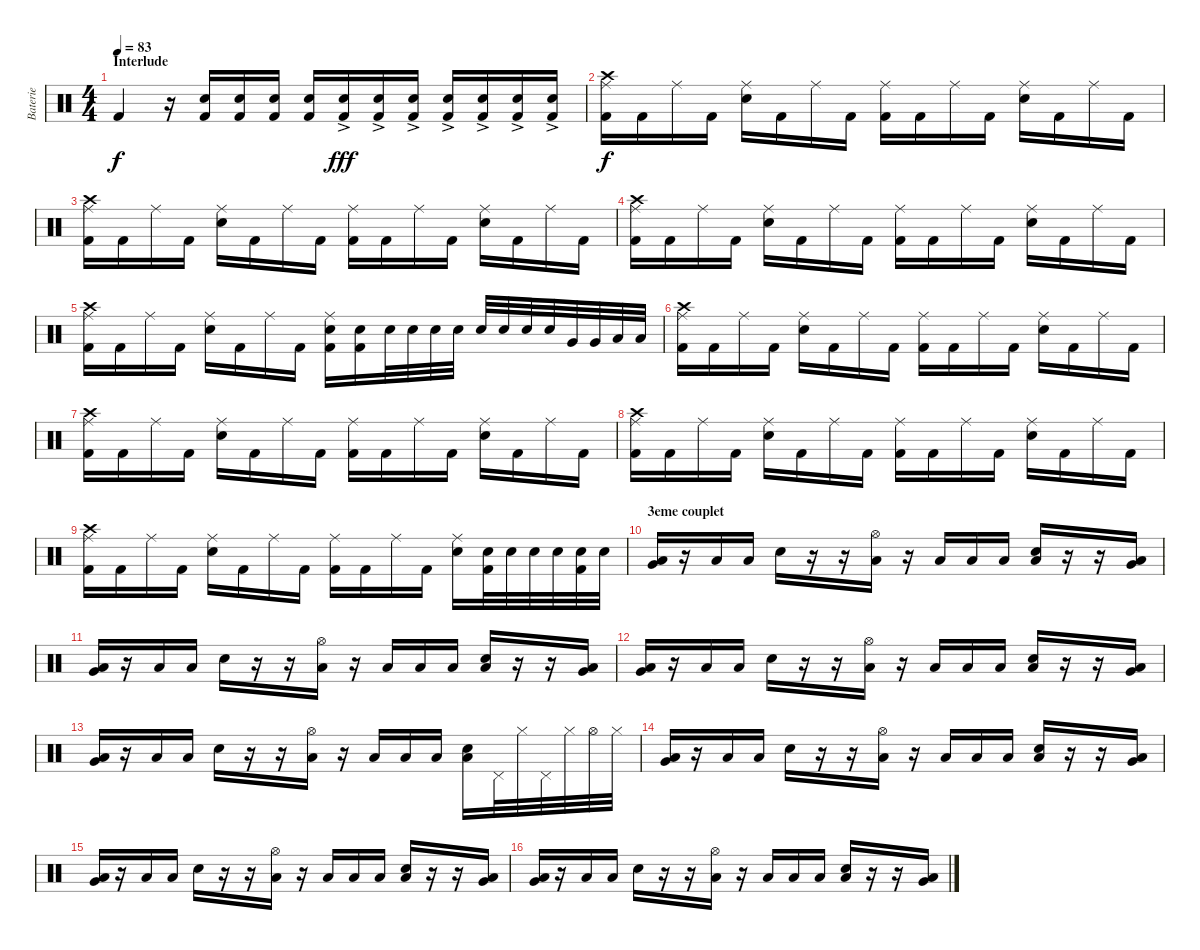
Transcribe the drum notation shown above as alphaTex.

\track ("Baterie" "Baterie") {instrument percussion}
\staff {score}
\articulation defaults
\ts (4 4)
\section ("" "Interlude")
\tempo 83
\clef neutral
\ks c "Kick (hit) 2".4{dy f}
r.16 ("Snare (hit) 2" "Kick (hit) 2").16 ("Snare (hit) 2" "Kick (hit) 2").16 ("Snare (hit) 2" "Kick (hit) 2").16 ("Snare (hit) 2" "Kick (hit) 2").16 ("Snare (hit) 2"{ac} "Kick (hit) 2").16{dy fff} ("Snare (hit) 2"{ac} "Kick (hit) 2").16 ("Snare (hit) 2"{ac} "Kick (hit) 2").16 ("Snare (hit) 2"{ac} "Kick (hit) 2").16 ("Snare (hit) 2"{ac} "Kick (hit) 2").16 ("Snare (hit) 2"{ac} "Kick (hit) 2").16 ("Snare (hit) 2"{ac} "Kick (hit) 2").16 |
("Crash high (hit)" "Kick (hit) 2" "Ride (middle)").16{dy f} "Kick (hit) 2".16 "Ride (middle)".16 "Kick (hit) 2".16 ("Snare (hit) 2" "Ride (middle)").16 "Kick (hit) 2".16 "Ride (middle)".16 "Kick (hit) 2".16 ("Kick (hit) 2" "Ride (middle)").16 "Kick (hit) 2".16 "Ride (middle)".16 "Kick (hit) 2".16 ("Snare (hit) 2" "Ride (middle)").16 "Kick (hit) 2".16 "Ride (middle)".16 "Kick (hit) 2".16 |
("Crash high (hit)" "Kick (hit) 2" "Ride (middle)").16 "Kick (hit) 2".16 "Ride (middle)".16 "Kick (hit) 2".16 ("Snare (hit) 2" "Ride (middle)").16 "Kick (hit) 2".16 "Ride (middle)".16 "Kick (hit) 2".16 ("Kick (hit) 2" "Ride (middle)").16 "Kick (hit) 2".16 "Ride (middle)".16 "Kick (hit) 2".16 ("Snare (hit) 2" "Ride (middle)").16 "Kick (hit) 2".16 "Ride (middle)".16 "Kick (hit) 2".16 |
("Crash high (hit)" "Kick (hit) 2" "Ride (middle)").16 "Kick (hit) 2".16 "Ride (middle)".16 "Kick (hit) 2".16 ("Snare (hit) 2" "Ride (middle)").16 "Kick (hit) 2".16 "Ride (middle)".16 "Kick (hit) 2".16 ("Kick (hit) 2" "Ride (middle)").16 "Kick (hit) 2".16 "Ride (middle)".16 "Kick (hit) 2".16 ("Snare (hit) 2" "Ride (middle)").16 "Kick (hit) 2".16 "Ride (middle)".16 "Kick (hit) 2".16 |
("Crash high (hit)" "Kick (hit) 2" "Ride (middle)").16 "Kick (hit) 2".16 "Ride (middle)".16 "Kick (hit) 2".16 ("Snare (hit) 2" "Ride (middle)").16 "Kick (hit) 2".16 "Ride (middle)".16 "Kick (hit) 2".16 ("Snare (hit) 2" "Kick (hit) 2" "Ride (middle)").16 ("Snare (hit) 2" "Kick (hit) 2").16 "Snare (hit) 2".32 "Snare (hit) 2".32 "Snare (hit) 2".32 "Snare (hit) 2".32 "Snare (hit) 2".32 "Snare (hit) 2".32 "Snare (hit) 2".32 "Snare (hit) 2".32 "Very Low Tom (hit)".32 "Very Low Tom (hit)".32 "Low Floor Tom (hit)".32 "Low Floor Tom (hit)".32 |
("Crash high (hit)" "Kick (hit) 2" "Ride (middle)").16 "Kick (hit) 2".16 "Ride (middle)".16 "Kick (hit) 2".16 ("Snare (hit) 2" "Ride (middle)").16 "Kick (hit) 2".16 "Ride (middle)".16 "Kick (hit) 2".16 ("Kick (hit) 2" "Ride (middle)").16 "Kick (hit) 2".16 "Ride (middle)".16 "Kick (hit) 2".16 ("Snare (hit) 2" "Ride (middle)").16 "Kick (hit) 2".16 "Ride (middle)".16 "Kick (hit) 2".16 |
("Crash high (hit)" "Kick (hit) 2" "Ride (middle)").16 "Kick (hit) 2".16 "Ride (middle)".16 "Kick (hit) 2".16 ("Snare (hit) 2" "Ride (middle)").16 "Kick (hit) 2".16 "Ride (middle)".16 "Kick (hit) 2".16 ("Kick (hit) 2" "Ride (middle)").16 "Kick (hit) 2".16 "Ride (middle)".16 "Kick (hit) 2".16 ("Snare (hit) 2" "Ride (middle)").16 "Kick (hit) 2".16 "Ride (middle)".16 "Kick (hit) 2".16 |
("Crash high (hit)" "Kick (hit) 2" "Ride (middle)").16 "Kick (hit) 2".16 "Ride (middle)".16 "Kick (hit) 2".16 ("Snare (hit) 2" "Ride (middle)").16 "Kick (hit) 2".16 "Ride (middle)".16 "Kick (hit) 2".16 ("Kick (hit) 2" "Ride (middle)").16 "Kick (hit) 2".16 "Ride (middle)".16 "Kick (hit) 2".16 ("Snare (hit) 2" "Ride (middle)").16 "Kick (hit) 2".16 "Ride (middle)".16 "Kick (hit) 2".16 |
("Crash high (hit)" "Kick (hit) 2" "Ride (middle)").16 "Kick (hit) 2".16 "Ride (middle)".16 "Kick (hit) 2".16 ("Snare (hit) 2" "Ride (middle)").16 "Kick (hit) 2".16 "Ride (middle)".16 "Kick (hit) 2".16 ("Kick (hit) 2" "Ride (middle)").16 "Kick (hit) 2".16 "Ride (middle)".16 "Kick (hit) 2".16 ("Snare (hit) 2" "Ride (middle)").16 ("Snare (hit) 2" "Kick (hit) 2").32 "Snare (hit) 2".32 "Snare (hit) 2".32 "Snare (hit) 2".32 ("Snare (hit) 2" "Kick (hit) 2").32 "Snare (hit) 2".32 |
\section ("" "3eme couplet")
("Low Floor Tom (hit)" "Very Low Tom (hit)").16 r.16 "Low Floor Tom (hit)".16 "Low Floor Tom (hit)".16 "Snare (hit) 2".16 r.16 r.16 ("Hi-Hat (open)" "Low Floor Tom (hit)").16 r.16 "Low Floor Tom (hit)".16 "Low Floor Tom (hit)".16 "Low Floor Tom (hit)".16 ("Snare (hit) 2" "Low Floor Tom (hit)").16 r.16 r.16 ("Low Floor Tom (hit)" "Very Low Tom (hit)").16 |
("Low Floor Tom (hit)" "Very Low Tom (hit)").16 r.16 "Low Floor Tom (hit)".16 "Low Floor Tom (hit)".16 "Snare (hit) 2".16 r.16 r.16 ("Hi-Hat (open)" "Low Floor Tom (hit)").16 r.16 "Low Floor Tom (hit)".16 "Low Floor Tom (hit)".16 "Low Floor Tom (hit)".16 ("Snare (hit) 2" "Low Floor Tom (hit)").16 r.16 r.16 ("Low Floor Tom (hit)" "Very Low Tom (hit)").16 |
("Low Floor Tom (hit)" "Very Low Tom (hit)").16 r.16 "Low Floor Tom (hit)".16 "Low Floor Tom (hit)".16 "Snare (hit) 2".16 r.16 r.16 ("Hi-Hat (open)" "Low Floor Tom (hit)").16 r.16 "Low Floor Tom (hit)".16 "Low Floor Tom (hit)".16 "Low Floor Tom (hit)".16 ("Snare (hit) 2" "Low Floor Tom (hit)").16 r.16 r.16 ("Low Floor Tom (hit)" "Very Low Tom (hit)").16 |
("Low Floor Tom (hit)" "Very Low Tom (hit)").16 r.16 "Low Floor Tom (hit)".16 "Low Floor Tom (hit)".16 "Snare (hit) 2".16 r.16 r.16 ("Hi-Hat (open)" "Low Floor Tom (hit)").16 r.16 "Low Floor Tom (hit)".16 "Low Floor Tom (hit)".16 "Low Floor Tom (hit)".16 ("Snare (hit) 2" "Low Floor Tom (hit)").16 "Pedal Hi-Hat (hit)".32 "Hi-Hat (closed)".32 "Pedal Hi-Hat (hit)".32 "Hi-Hat (closed)".32 "Hi-Hat (open)".32 "Hi-Hat (closed)".32 |
("Low Floor Tom (hit)" "Very Low Tom (hit)").16 r.16 "Low Floor Tom (hit)".16 "Low Floor Tom (hit)".16 "Snare (hit) 2".16 r.16 r.16 ("Hi-Hat (open)" "Low Floor Tom (hit)").16 r.16 "Low Floor Tom (hit)".16 "Low Floor Tom (hit)".16 "Low Floor Tom (hit)".16 ("Snare (hit) 2" "Low Floor Tom (hit)").16 r.16 r.16 ("Low Floor Tom (hit)" "Very Low Tom (hit)").16 |
("Low Floor Tom (hit)" "Very Low Tom (hit)").16 r.16 "Low Floor Tom (hit)".16 "Low Floor Tom (hit)".16 "Snare (hit) 2".16 r.16 r.16 ("Hi-Hat (open)" "Low Floor Tom (hit)").16 r.16 "Low Floor Tom (hit)".16 "Low Floor Tom (hit)".16 "Low Floor Tom (hit)".16 ("Snare (hit) 2" "Low Floor Tom (hit)").16 r.16 r.16 ("Low Floor Tom (hit)" "Very Low Tom (hit)").16 |
("Low Floor Tom (hit)" "Very Low Tom (hit)").16 r.16 "Low Floor Tom (hit)".16 "Low Floor Tom (hit)".16 "Snare (hit) 2".16 r.16 r.16 ("Hi-Hat (open)" "Low Floor Tom (hit)").16 r.16 "Low Floor Tom (hit)".16 "Low Floor Tom (hit)".16 "Low Floor Tom (hit)".16 ("Snare (hit) 2" "Low Floor Tom (hit)").16 r.16 r.16 ("Low Floor Tom (hit)" "Very Low Tom (hit)").16
